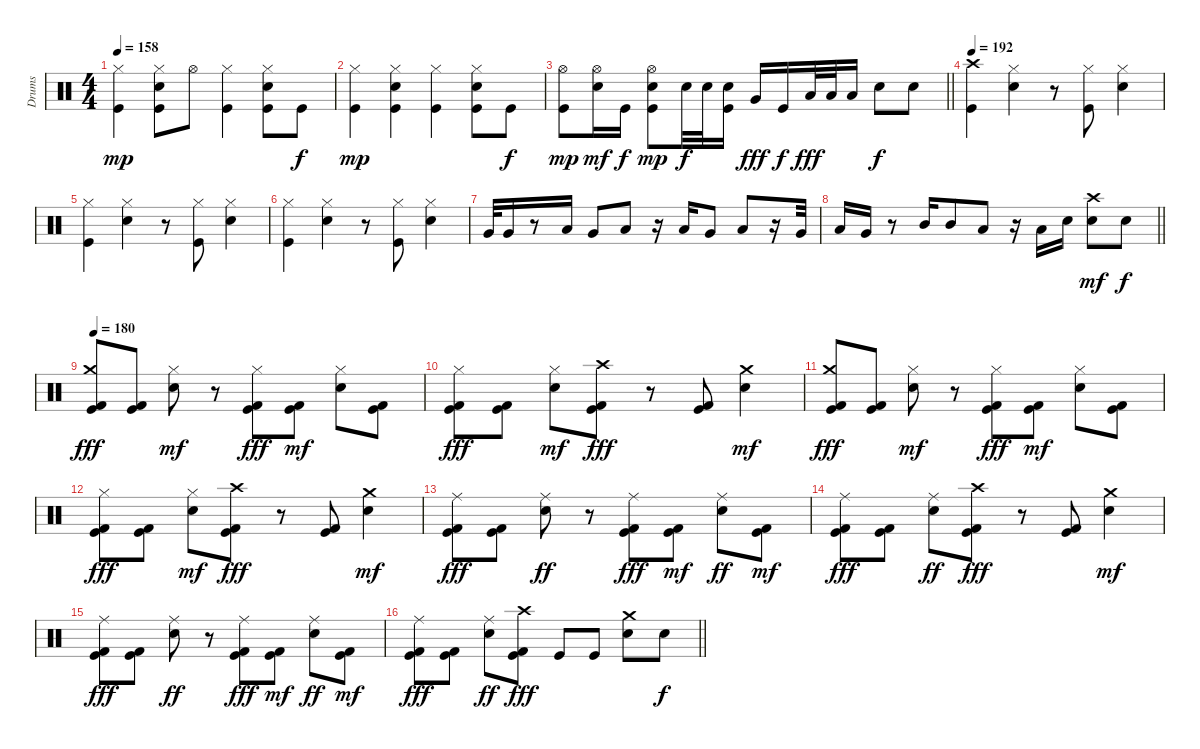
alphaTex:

\track ("Drums" "Drums") {instrument percussion}
\staff {score}
\articulation defaults
\ts (4 4)
\tempo 158
\clef neutral
\ks c
("Hi-Hat (closed)" "Kick (hit)").4{dy mp} ("Hi-Hat (closed)" "Snare (hit) 2" "Kick (hit)").8 "Hi-Hat (open)".8 ("Hi-Hat (closed)" "Kick (hit)").4 ("Hi-Hat (closed)" "Snare (hit) 2" "Kick (hit)").8 "Kick (hit)".8{dy f} |
("Hi-Hat (closed)" "Kick (hit)").4{dy mp} ("Hi-Hat (closed)" "Snare (hit) 2" "Kick (hit)").4 ("Hi-Hat (closed)" "Kick (hit)").4 ("Hi-Hat (closed)" "Snare (hit) 2" "Kick (hit)").8 "Kick (hit)".8{dy f} |
\barLineRight lightlight
("Hi-Hat (open)" "Kick (hit)").8{dy mp} ("Hi-Hat (open)" "Snare (hit) 2").16{dy mf} "Kick (hit)".16{dy f} ("Hi-Hat (open)" "Snare (hit) 2" "Kick (hit)").8{dy mp} "Snare (hit) 2".32{dy f} "Snare (hit) 2".32 ("Snare (hit) 2" "Kick (hit)").16 "Very Low Tom (hit)".16{dy fff} "Kick (hit)".16{dy f balance 8} "Low Tom (hit)".32{dy fff balance 0} "Low Tom (hit)".32{balance 0} "Low Tom (hit)".16{balance 0} "Snare (hit) 2".8{dy f volume 13 balance 8} "Snare (hit) 2".8 |
\tempo 192
("Crash high (hit)" "Kick (hit)").4 ("Hi-Hat (closed)" "Snare (hit) 2").4 r.8 ("Hi-Hat (closed)" "Kick (hit)").8 ("Hi-Hat (closed)" "Snare (hit) 2").4 |
("Hi-Hat (closed)" "Kick (hit)").4 ("Hi-Hat (closed)" "Snare (hit) 2").4 r.8 ("Hi-Hat (closed)" "Kick (hit)").8 ("Hi-Hat (closed)" "Snare (hit) 2").4 |
("Hi-Hat (closed)" "Kick (hit)").4 ("Hi-Hat (closed)" "Snare (hit) 2").4 r.8 ("Hi-Hat (closed)" "Kick (hit)").8 ("Hi-Hat (closed)" "Snare (hit) 2").4 |
"Very Low Tom (hit)".32{volume 16 balance 16} "Very Low Tom (hit)".16{balance 0} r.8 "Low Tom (hit)".16 "Very Low Tom (hit)".8 "Low Tom (hit)".8 r.16 "Low Tom (hit)".16 "Very Low Tom (hit)".8 "Low Tom (hit)".8 r.16 "Very Low Tom (hit)".32 |
\barLineRight lightlight "Low Tom (hit)".16 "Very Low Tom (hit)".16
r.8 "Mid Tom (hit)".16 "Mid Tom (hit)".8 "Low Tom (hit)".8 r.16 "Low Tom (hit)".16 "Snare (hit) 2".16 ("Crash high (hit)" "Snare (hit) 2").8{dy mf} "Snare (hit) 2".8{dy f} |
\tempo 180
("Crash medium (hit)" "Kick (hit) 2" "Kick (hit)").8{dy fff volume 13 balance 8} ("Kick (hit) 2" "Kick (hit)").8 ("Hi-Hat (closed)" "Snare (hit) 2").8{dy mf} r.8 ("Hi-Hat (closed)" "Kick (hit) 2" "Kick (hit)").8{dy fff} ("Kick (hit) 2" "Kick (hit)").8{dy mf} ("Hi-Hat (closed)" "Snare (hit) 2").8 ("Kick (hit) 2" "Kick (hit)").8 |
("Hi-Hat (closed)" "Kick (hit) 2" "Kick (hit)").8{dy fff} ("Kick (hit) 2" "Kick (hit)").8 ("Hi-Hat (closed)" "Snare (hit) 2").8{dy mf} ("Crash high (hit)" "Kick (hit) 2" "Kick (hit)").8{dy fff} r.8 ("Kick (hit) 2" "Kick (hit)").8 ("Crash medium (hit)" "Snare (hit) 2").4{dy mf} |
("Crash medium (hit)" "Kick (hit) 2" "Kick (hit)").8{dy fff} ("Kick (hit) 2" "Kick (hit)").8 ("Hi-Hat (closed)" "Snare (hit) 2").8{dy mf} r.8 ("Hi-Hat (closed)" "Kick (hit) 2" "Kick (hit)").8{dy fff} ("Kick (hit) 2" "Kick (hit)").8{dy mf} ("Hi-Hat (closed)" "Snare (hit) 2").8 ("Kick (hit) 2" "Kick (hit)").8 |
("Hi-Hat (closed)" "Kick (hit) 2" "Kick (hit)").8{dy fff} ("Kick (hit) 2" "Kick (hit)").8 ("Hi-Hat (closed)" "Snare (hit) 2").8{dy mf} ("Crash high (hit)" "Kick (hit) 2" "Kick (hit)").8{dy fff} r.8 ("Kick (hit) 2" "Kick (hit)").8 ("Crash medium (hit)" "Snare (hit) 2").4{dy mf} |
("Ride (middle)" "Kick (hit) 2" "Kick (hit)").8{dy fff} ("Kick (hit) 2" "Kick (hit)").8 ("Ride (middle)" "Snare (hit) 2").8{dy ff} r.8 ("Ride (middle)" "Kick (hit) 2" "Kick (hit)").8{dy fff} ("Kick (hit) 2" "Kick (hit)").8{dy mf} ("Ride (middle)" "Snare (hit) 2").8{dy ff} ("Kick (hit) 2" "Kick (hit)").8{dy mf} |
("Ride (middle)" "Kick (hit) 2" "Kick (hit)").8{dy fff} ("Kick (hit) 2" "Kick (hit)").8 ("Ride (middle)" "Snare (hit) 2").8{dy ff} ("Crash high (hit)" "Kick (hit) 2" "Kick (hit)").8{dy fff} r.8 ("Kick (hit) 2" "Kick (hit)").8 ("Crash medium (hit)" "Snare (hit) 2").4{dy mf} |
("Ride (middle)" "Kick (hit) 2" "Kick (hit)").8{dy fff} ("Kick (hit) 2" "Kick (hit)").8 ("Ride (middle)" "Snare (hit) 2").8{dy ff} r.8 ("Ride (middle)" "Kick (hit) 2" "Kick (hit)").8{dy fff} ("Kick (hit) 2" "Kick (hit)").8{dy mf} ("Ride (middle)" "Snare (hit) 2").8{dy ff} ("Kick (hit) 2" "Kick (hit)").8{dy mf} |
\barLineRight lightlight
("Ride (middle)" "Kick (hit) 2" "Kick (hit)").8{dy fff} ("Kick (hit) 2" "Kick (hit)").8 ("Ride (middle)" "Snare (hit) 2").8{dy ff} ("Crash high (hit)" "Kick (hit) 2" "Kick (hit)").8{dy fff} "Kick (hit)".8 "Kick (hit)".8 ("Crash medium (hit)" "Snare (hit) 2").8 "Snare (hit) 2".8{dy f}
